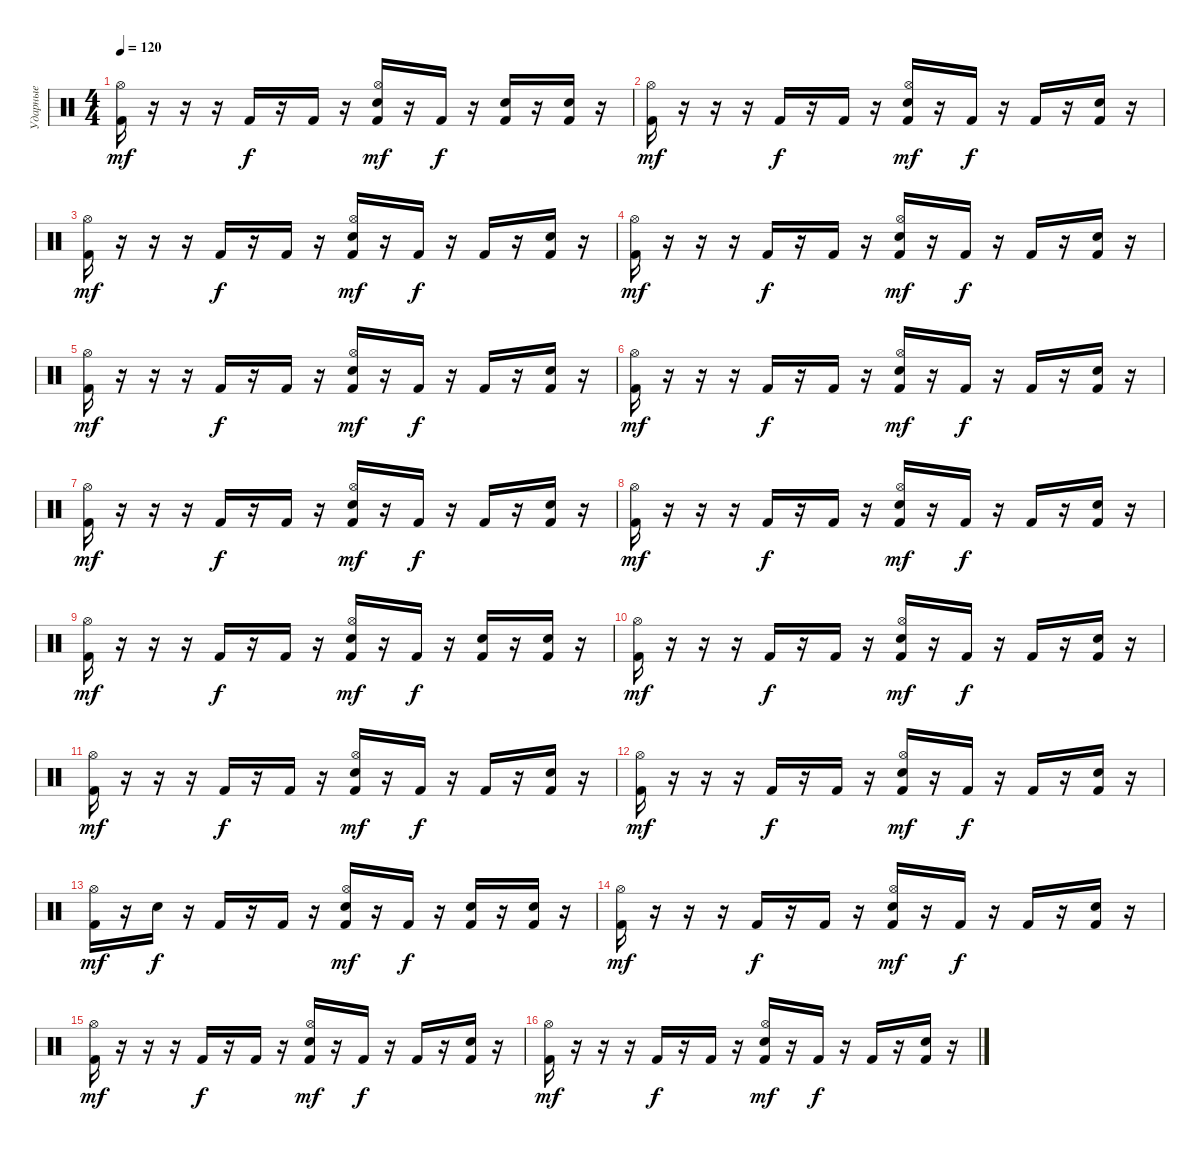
\track ("Ударные" "Ударные") {instrument percussion}
\staff {score}
\articulation defaults
\ts (4 4)
\tempo 120
\clef neutral
\ks c
("Kick (hit) 2" "Hi-Hat (open)").16{dy mf} r.16 r.16 r.16 "Kick (hit) 2".16{dy f} r.16 "Kick (hit) 2".16 r.16 ("Kick (hit) 2" "Hi-Hat (open)" "Snare (hit) 2").16{dy mf} r.16 "Kick (hit) 2".16{dy f} r.16 ("Kick (hit) 2" "Snare (hit) 2").16 r.16 ("Kick (hit) 2" "Snare (hit) 2").16 r.16 |
("Kick (hit) 2" "Hi-Hat (open)").16{dy mf volume 8} r.16 r.16 r.16 "Kick (hit) 2".16{dy f} r.16 "Kick (hit) 2".16 r.16 ("Kick (hit) 2" "Hi-Hat (open)" "Snare (hit) 2").16{dy mf} r.16 "Kick (hit) 2".16{dy f} r.16 "Kick (hit) 2".16 r.16 ("Kick (hit) 2" "Snare (hit) 2").16 r.16 |
("Kick (hit) 2" "Hi-Hat (open)").16{dy mf} r.16 r.16 r.16 "Kick (hit) 2".16{dy f} r.16 "Kick (hit) 2".16 r.16 ("Kick (hit) 2" "Hi-Hat (open)" "Snare (hit) 2").16{dy mf} r.16 "Kick (hit) 2".16{dy f} r.16 "Kick (hit) 2".16 r.16 ("Kick (hit) 2" "Snare (hit) 2").16 r.16 |
("Kick (hit) 2" "Hi-Hat (open)").16{dy mf} r.16 r.16 r.16 "Kick (hit) 2".16{dy f} r.16 "Kick (hit) 2".16 r.16 ("Kick (hit) 2" "Hi-Hat (open)" "Snare (hit) 2").16{dy mf} r.16 "Kick (hit) 2".16{dy f} r.16 "Kick (hit) 2".16 r.16 ("Kick (hit) 2" "Snare (hit) 2").16 r.16 |
("Kick (hit) 2" "Hi-Hat (open)").16{dy mf} r.16 r.16 r.16 "Kick (hit) 2".16{dy f} r.16 "Kick (hit) 2".16 r.16 ("Kick (hit) 2" "Hi-Hat (open)" "Snare (hit) 2").16{dy mf} r.16 "Kick (hit) 2".16{dy f} r.16 "Kick (hit) 2".16 r.16 ("Kick (hit) 2" "Snare (hit) 2").16 r.16 |
("Kick (hit) 2" "Hi-Hat (open)").16{dy mf volume 6} r.16 r.16 r.16 "Kick (hit) 2".16{dy f} r.16 "Kick (hit) 2".16 r.16 ("Kick (hit) 2" "Hi-Hat (open)" "Snare (hit) 2").16{dy mf} r.16 "Kick (hit) 2".16{dy f} r.16 "Kick (hit) 2".16 r.16 ("Kick (hit) 2" "Snare (hit) 2").16 r.16 |
("Kick (hit) 2" "Hi-Hat (open)").16{dy mf} r.16 r.16 r.16 "Kick (hit) 2".16{dy f} r.16 "Kick (hit) 2".16 r.16 ("Kick (hit) 2" "Hi-Hat (open)" "Snare (hit) 2").16{dy mf} r.16 "Kick (hit) 2".16{dy f} r.16 "Kick (hit) 2".16 r.16 ("Kick (hit) 2" "Snare (hit) 2").16 r.16 |
("Kick (hit) 2" "Hi-Hat (open)").16{dy mf} r.16 r.16 r.16 "Kick (hit) 2".16{dy f} r.16 "Kick (hit) 2".16 r.16 ("Kick (hit) 2" "Hi-Hat (open)" "Snare (hit) 2").16{dy mf} r.16 "Kick (hit) 2".16{dy f} r.16 "Kick (hit) 2".16 r.16 ("Kick (hit) 2" "Snare (hit) 2").16 r.16 |
("Kick (hit) 2" "Hi-Hat (open)").16{dy mf} r.16 r.16 r.16 "Kick (hit) 2".16{dy f} r.16 "Kick (hit) 2".16 r.16 ("Kick (hit) 2" "Hi-Hat (open)" "Snare (hit) 2").16{dy mf} r.16 "Kick (hit) 2".16{dy f} r.16 ("Kick (hit) 2" "Snare (hit) 2").16 r.16 ("Kick (hit) 2" "Snare (hit) 2").16 r.16 |
("Kick (hit) 2" "Hi-Hat (open)").16{dy mf volume 4} r.16 r.16 r.16 "Kick (hit) 2".16{dy f} r.16 "Kick (hit) 2".16 r.16 ("Kick (hit) 2" "Hi-Hat (open)" "Snare (hit) 2").16{dy mf} r.16 "Kick (hit) 2".16{dy f} r.16 "Kick (hit) 2".16 r.16 ("Kick (hit) 2" "Snare (hit) 2").16 r.16 |
("Kick (hit) 2" "Hi-Hat (open)").16{dy mf} r.16 r.16 r.16 "Kick (hit) 2".16{dy f} r.16 "Kick (hit) 2".16 r.16 ("Kick (hit) 2" "Hi-Hat (open)" "Snare (hit) 2").16{dy mf} r.16 "Kick (hit) 2".16{dy f} r.16 "Kick (hit) 2".16 r.16 ("Kick (hit) 2" "Snare (hit) 2").16 r.16 |
("Kick (hit) 2" "Hi-Hat (open)").16{dy mf} r.16 r.16 r.16 "Kick (hit) 2".16{dy f} r.16 "Kick (hit) 2".16 r.16 ("Kick (hit) 2" "Hi-Hat (open)" "Snare (hit) 2").16{dy mf} r.16 "Kick (hit) 2".16{dy f} r.16 "Kick (hit) 2".16 r.16 ("Kick (hit) 2" "Snare (hit) 2").16 r.16 |
("Kick (hit) 2" "Hi-Hat (open)").16{dy mf} r.16 "Snare (hit) 2".16{dy f} r.16 "Kick (hit) 2".16 r.16 "Kick (hit) 2".16 r.16 ("Kick (hit) 2" "Hi-Hat (open)" "Snare (hit) 2").16{dy mf} r.16 "Kick (hit) 2".16{dy f} r.16 ("Kick (hit) 2" "Snare (hit) 2").16 r.16 ("Kick (hit) 2" "Snare (hit) 2").16 r.16 |
("Kick (hit) 2" "Hi-Hat (open)").16{dy mf volume 2} r.16 r.16 r.16 "Kick (hit) 2".16{dy f} r.16 "Kick (hit) 2".16 r.16 ("Kick (hit) 2" "Hi-Hat (open)" "Snare (hit) 2").16{dy mf} r.16 "Kick (hit) 2".16{dy f} r.16 "Kick (hit) 2".16 r.16 ("Kick (hit) 2" "Snare (hit) 2").16 r.16 |
("Kick (hit) 2" "Hi-Hat (open)").16{dy mf} r.16 r.16 r.16 "Kick (hit) 2".16{dy f} r.16 "Kick (hit) 2".16 r.16 ("Kick (hit) 2" "Hi-Hat (open)" "Snare (hit) 2").16{dy mf} r.16 "Kick (hit) 2".16{dy f} r.16 "Kick (hit) 2".16 r.16 ("Kick (hit) 2" "Snare (hit) 2").16 r.16 |
("Kick (hit) 2" "Hi-Hat (open)").16{dy mf} r.16 r.16 r.16 "Kick (hit) 2".16{dy f} r.16 "Kick (hit) 2".16 r.16 ("Kick (hit) 2" "Hi-Hat (open)" "Snare (hit) 2").16{dy mf} r.16 "Kick (hit) 2".16{dy f} r.16 "Kick (hit) 2".16 r.16 ("Kick (hit) 2" "Snare (hit) 2").16 r.16
